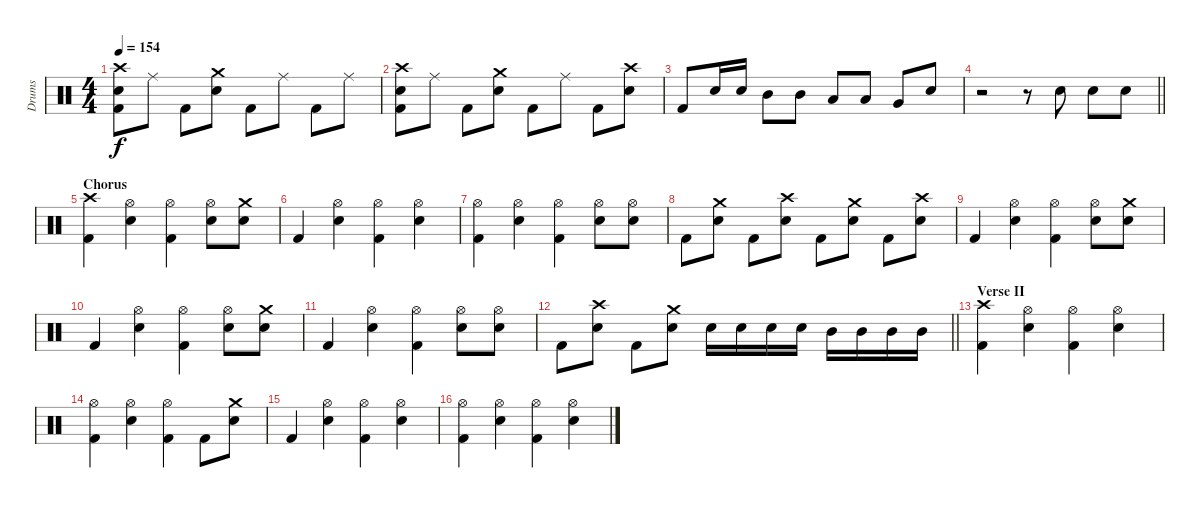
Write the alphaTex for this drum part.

\track ("Drums" "Drums") {instrument percussion}
\staff {score}
\articulation defaults
\ts (4 4)
\tempo 154
\clef neutral
\ks c
("Crash high (hit)" "Snare (hit) 2" "Kick (hit) 2").8{dy f} "Ride (middle)".8 "Kick (hit) 2".8 ("Crash medium (hit)" "Snare (hit) 2").8 "Kick (hit) 2".8 "Ride (middle)".8 "Kick (hit) 2".8 "Ride (middle)".8 |
("Crash high (hit)" "Snare (hit) 2" "Kick (hit) 2").8 "Ride (middle)".8 "Kick (hit) 2".8 ("Crash medium (hit)" "Snare (hit) 2").8 "Kick (hit) 2".8 "Ride (middle)".8 "Kick (hit) 2".8 ("Crash high (hit)" "Snare (hit) 2").8 |
"Kick (hit) 2".8 "Snare (hit) 2".16 "Snare (hit) 2".16 "Mid Tom (hit)".8 "Mid Tom (hit)".8 "Low Tom (hit)".8 "Low Tom (hit)".8 "Very Low Tom (hit)".8 "Snare (hit) 2".8 |
\barLineRight lightlight
r.2 r.8 "Snare (hit) 2".8 "Snare (hit) 2".8 "Snare (hit) 2".8 |
\section ("" "Chorus")
("Crash high (hit)" "Kick (hit) 2").4 ("Hi-Hat (open)" "Snare (hit) 2").4 ("Hi-Hat (open)" "Kick (hit) 2").4 ("Hi-Hat (open)" "Snare (hit) 2").8 ("Crash medium (hit)" "Snare (hit) 2").8 |
"Kick (hit) 2".4 ("Hi-Hat (open)" "Snare (hit) 2").4 ("Hi-Hat (open)" "Kick (hit) 2").4 ("Hi-Hat (open)" "Snare (hit) 2").4 |
("Hi-Hat (open)" "Kick (hit) 2").4 ("Hi-Hat (open)" "Snare (hit) 2").4 ("Hi-Hat (open)" "Kick (hit) 2").4 ("Hi-Hat (open)" "Snare (hit) 2").8 ("Hi-Hat (open)" "Snare (hit) 2").8 |
"Kick (hit) 2".8 ("Crash medium (hit)" "Snare (hit) 2").8 "Kick (hit) 2".8 ("Crash high (hit)" "Snare (hit) 2").8 "Kick (hit) 2".8 ("Crash medium (hit)" "Snare (hit) 2").8 "Kick (hit) 2".8 ("Crash high (hit)" "Snare (hit) 2").8 |
"Kick (hit) 2".4 ("Hi-Hat (open)" "Snare (hit) 2").4 ("Hi-Hat (open)" "Kick (hit) 2").4 ("Hi-Hat (open)" "Snare (hit) 2").8 ("Crash medium (hit)" "Snare (hit) 2").8 |
"Kick (hit) 2".4 ("Hi-Hat (open)" "Snare (hit) 2").4 ("Hi-Hat (open)" "Kick (hit) 2").4 ("Hi-Hat (open)" "Snare (hit) 2").8 ("Crash medium (hit)" "Snare (hit) 2").8 |
"Kick (hit) 2".4 ("Hi-Hat (open)" "Snare (hit) 2").4 ("Hi-Hat (open)" "Kick (hit) 2").4 ("Hi-Hat (open)" "Snare (hit) 2").8 ("Hi-Hat (open)" "Snare (hit) 2").8 |
\barLineRight lightlight "Kick (hit) 2".8
("Crash high (hit)" "Snare (hit) 2").8 "Kick (hit) 2".8 ("Crash medium (hit)" "Snare (hit) 2").8 "Snare (hit) 2".16 "Snare (hit) 2".16 "Snare (hit) 2".16 "Snare (hit) 2".16 "Mid Tom (hit)".16 "Mid Tom (hit)".16 "Mid Tom (hit)".16 "Mid Tom (hit)".16 |
\section ("" "Verse II")
("Crash high (hit)" "Kick (hit) 2").4 ("Hi-Hat (open)" "Snare (hit) 2").4 ("Hi-Hat (open)" "Kick (hit) 2").4 ("Hi-Hat (open)" "Snare (hit) 2").4 |
("Hi-Hat (open)" "Kick (hit) 2").4 ("Hi-Hat (open)" "Snare (hit) 2").4 ("Hi-Hat (open)" "Kick (hit) 2").4 "Kick (hit) 2".8 ("Crash medium (hit)" "Snare (hit) 2").8 |
"Kick (hit) 2".4 ("Hi-Hat (open)" "Snare (hit) 2").4 ("Hi-Hat (open)" "Kick (hit) 2").4 ("Hi-Hat (open)" "Snare (hit) 2").4 |
("Hi-Hat (open)" "Kick (hit) 2").4 ("Hi-Hat (open)" "Snare (hit) 2").4 ("Hi-Hat (open)" "Kick (hit) 2").4 ("Hi-Hat (open)" "Snare (hit) 2").4
